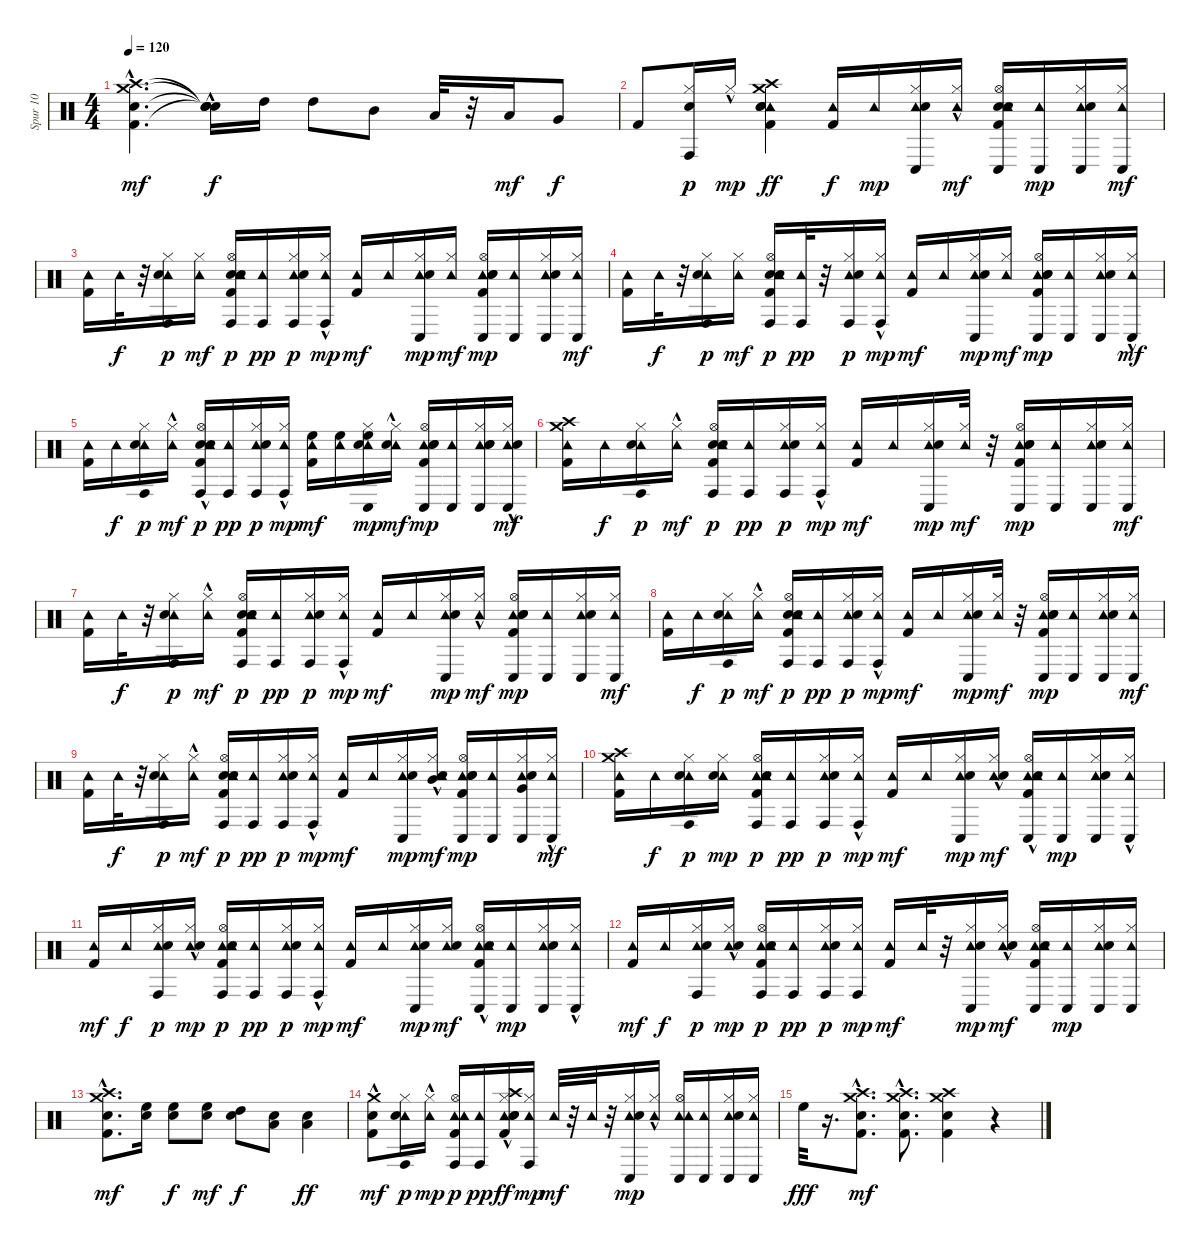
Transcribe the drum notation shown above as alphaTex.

\track ("Spur 10" "Spur 10") {instrument percussion}
\staff {score}
\articulation defaults
\ts (4 4)
\tempo 120
\clef neutral
\ks c
("Crash medium (hit)"{hac} "Crash high (hit)"{hac} "Electric Snare (hit)"{hac} "Kick (hit) 2"{hac}).4{d dy mf} ("Snare (hit)"{hac t} "Snare (hit)"{hac t} "Snare (hit)"{t} "Snare (hit)"{t}).16{dy f} "High Tom (hit)".16 "High Tom (hit)".8 "Mid Tom (hit)".8 "Low Tom (hit)".32 r.32 "Low Tom (hit)".16{dy mf} "Very Low Tom (hit)".8{dy f} |
"Kick (hit) 2".8 ("Hi-Hat (closed)" "Snare (hit)" "Conga high (hit)").16{dy p} "Hi-Hat (closed)"{hac}.16{dy mp} ("Crash high (hit)" "Tambourine (hit)" "Hand Clap (hit)" "Kick (hit) 2" "Snare (hit) 2" "Crash medium (hit)").4{dy ff} ("Tambourine (hit)" "Kick (hit) 2").16{dy f} "Tambourine (hit)".16{dy mp} ("Hi-Hat (closed)" "Tambourine (hit)" "Snare (hit)" "Conga low (hit)").16 ("Hi-Hat (closed)"{hac} "Tambourine (hit)").16{dy mf} ("Snare (hit) 2" "Hi-Hat (open)" "Tambourine (hit)" "Hand Clap (hit)" "Kick (hit) 2" "Conga low (hit)").16 ("Tambourine (hit)" "Conga low (hit)").16{dy mp} ("Hi-Hat (closed)" "Tambourine (hit)" "Snare (hit)" "Conga low (hit)").16 ("Conga low (hit)" "Hi-Hat (closed)" "Tambourine (hit)").16{dy mf} |
("Tambourine (hit)" "Kick (hit) 2").16 "Tambourine (hit)".32{dy f} r.32 ("Hi-Hat (closed)" "Tambourine (hit)" "Snare (hit)" "Conga high (hit)").16{dy p} ("Hi-Hat (closed)" "Tambourine (hit)").16{dy mf} ("Hand Clap (hit)" "Hi-Hat (open)" "Tambourine (hit)" "Snare (hit) 2" "Kick (hit) 2" "Conga high (hit)").16{dy p} ("Tambourine (hit)" "Conga high (hit)").16{dy pp} ("Hi-Hat (closed)" "Tambourine (hit)" "Snare (hit)" "Conga high (hit)").16{dy p} ("Hi-Hat (closed)"{hac} "Tambourine (hit)" "Conga high (hit)").16{dy mp} ("Tambourine (hit)" "Kick (hit) 2").16{dy mf} "Tambourine (hit)".16 ("Hi-Hat (closed)" "Tambourine (hit)" "Snare (hit)" "Conga low (hit)").16{dy mp} ("Hi-Hat (closed)" "Tambourine (hit)").16{dy mf} ("Hi-Hat (open)" "Tambourine (hit)" "Hand Clap (hit)" "Kick (hit) 2" "Conga low (hit)" "Snare (hit) 2").16{dy mp} ("Tambourine (hit)" "Conga low (hit)").16 ("Hi-Hat (closed)" "Tambourine (hit)" "Snare (hit)" "Conga low (hit)").16 ("Conga low (hit)" "Hi-Hat (closed)" "Tambourine (hit)").16{dy mf} |
("Tambourine (hit)" "Kick (hit) 2").16 "Tambourine (hit)".32{dy f} r.32 ("Hi-Hat (closed)" "Tambourine (hit)" "Snare (hit)" "Conga high (hit)").16{dy p} ("Hi-Hat (closed)" "Tambourine (hit)").16{dy mf} ("Hand Clap (hit)" "Hi-Hat (open)" "Tambourine (hit)" "Snare (hit) 2" "Kick (hit) 2" "Conga high (hit)").16{dy p} ("Tambourine (hit)" "Conga high (hit)").32{dy pp} r.32 ("Hi-Hat (closed)" "Tambourine (hit)" "Snare (hit)" "Conga high (hit)").16{dy p} ("Hi-Hat (closed)"{hac} "Tambourine (hit)" "Conga high (hit)").16{dy mp} ("Tambourine (hit)" "Kick (hit) 2").16{dy mf} "Tambourine (hit)".16 ("Hi-Hat (closed)" "Tambourine (hit)" "Snare (hit)" "Conga low (hit)").16{dy mp} ("Hi-Hat (closed)" "Tambourine (hit)").16{dy mf} ("Hi-Hat (open)" "Tambourine (hit)" "Hand Clap (hit)" "Kick (hit) 2" "Conga low (hit)" "Snare (hit) 2").16{dy mp} ("Tambourine (hit)" "Conga low (hit)").16 ("Hi-Hat (closed)" "Tambourine (hit)" "Snare (hit)" "Conga low (hit)").16 ("Conga low (hit)" "Hi-Hat (closed)"{hac} "Tambourine (hit)").16{dy mf} |
("Tambourine (hit)" "Kick (hit) 2").16 "Tambourine (hit)".16{dy f} ("Hi-Hat (closed)" "Tambourine (hit)" "Snare (hit)" "Conga high (hit)").16{dy p} ("Hi-Hat (closed)"{hac} "Tambourine (hit)").16{dy mf} ("Hand Clap (hit)" "Hi-Hat (open)" "Tambourine (hit)" "Snare (hit) 2"{hac} "Kick (hit) 2" "Conga high (hit)").16{dy p} ("Tambourine (hit)" "Conga high (hit)").16{dy pp} ("Hi-Hat (closed)" "Tambourine (hit)" "Snare (hit)" "Conga high (hit)").16{dy p} ("Hi-Hat (closed)"{hac} "Tambourine (hit)" "Conga high (hit)").16{dy mp} ("Tambourine (hit)" "Kick (hit) 2" "High Floor Tom (hit)").16{dy mf} ("Tambourine (hit)" "High Floor Tom (hit)").16 ("Hi-Hat (closed)" "Tambourine (hit)" "Snare (hit)" "Conga low (hit)" "High Floor Tom (hit)").16{dy mp} ("Hi-Hat (closed)"{hac} "Tambourine (hit)" "Snare (hit) 2").16{dy mf} ("Hi-Hat (open)" "Tambourine (hit)" "Hand Clap (hit)" "Snare (hit) 2" "Kick (hit) 2" "Conga low (hit)").16{dy mp} ("Tambourine (hit)" "Conga low (hit)").16 ("Hi-Hat (closed)" "Tambourine (hit)" "Snare (hit)" "Conga low (hit)" "Snare (hit) 2").16 ("Hi-Hat (closed)"{hac} "Tambourine (hit)" "Conga low (hit)" "Snare (hit) 2").16{dy mf} |
("Crash medium (hit)" "Crash high (hit)" "Tambourine (hit)" "Kick (hit) 2").16 "Tambourine (hit)".16{dy f} ("Hi-Hat (closed)" "Tambourine (hit)" "Snare (hit)" "Conga high (hit)").16{dy p} ("Hi-Hat (closed)"{hac} "Tambourine (hit)").16{dy mf} ("Hand Clap (hit)" "Hi-Hat (open)" "Tambourine (hit)" "Snare (hit) 2" "Kick (hit) 2" "Conga high (hit)").16{dy p} ("Tambourine (hit)" "Conga high (hit)").16{dy pp} ("Hi-Hat (closed)" "Tambourine (hit)" "Snare (hit)" "Conga high (hit)").16{dy p} ("Hi-Hat (closed)"{hac} "Tambourine (hit)" "Conga high (hit)").16{dy mp} ("Tambourine (hit)" "Kick (hit) 2").16{dy mf} "Tambourine (hit)".16 ("Hi-Hat (closed)" "Tambourine (hit)" "Snare (hit)" "Conga low (hit)").16{dy mp} ("Hi-Hat (closed)" "Tambourine (hit)").32{dy mf} r.32 ("Hi-Hat (open)" "Tambourine (hit)" "Hand Clap (hit)" "Kick (hit) 2" "Conga low (hit)" "Snare (hit) 2").16{dy mp} ("Tambourine (hit)" "Conga low (hit)").16 ("Hi-Hat (closed)" "Tambourine (hit)" "Snare (hit)" "Conga low (hit)").16 ("Conga low (hit)" "Hi-Hat (closed)" "Tambourine (hit)").16{dy mf} |
("Tambourine (hit)" "Kick (hit) 2").16 "Tambourine (hit)".32{dy f} r.32 ("Hi-Hat (closed)" "Tambourine (hit)" "Snare (hit)" "Conga high (hit)").16{dy p} ("Hi-Hat (closed)"{hac} "Tambourine (hit)").16{dy mf} ("Hand Clap (hit)" "Hi-Hat (open)" "Tambourine (hit)" "Snare (hit) 2" "Kick (hit) 2" "Conga high (hit)").16{dy p} ("Tambourine (hit)" "Conga high (hit)").16{dy pp} ("Hi-Hat (closed)" "Tambourine (hit)" "Snare (hit)" "Conga high (hit)").16{dy p} ("Hi-Hat (closed)"{hac} "Tambourine (hit)" "Conga high (hit)").16{dy mp} ("Tambourine (hit)" "Kick (hit) 2").16{dy mf} "Tambourine (hit)".16 ("Hi-Hat (closed)" "Tambourine (hit)" "Snare (hit)" "Conga low (hit)").16{dy mp} ("Hi-Hat (closed)"{hac} "Tambourine (hit)").16{dy mf} ("Hi-Hat (open)" "Tambourine (hit)" "Hand Clap (hit)" "Kick (hit) 2" "Conga low (hit)" "Snare (hit) 2").16{dy mp} ("Tambourine (hit)" "Conga low (hit)").16 ("Hi-Hat (closed)" "Tambourine (hit)" "Snare (hit)" "Conga low (hit)").16 ("Conga low (hit)" "Hi-Hat (closed)" "Tambourine (hit)").16{dy mf} |
("Tambourine (hit)" "Kick (hit) 2").16 "Tambourine (hit)".16{dy f} ("Hi-Hat (closed)" "Tambourine (hit)" "Snare (hit)" "Conga high (hit)").16{dy p} ("Hi-Hat (closed)"{hac} "Tambourine (hit)").16{dy mf} ("Hand Clap (hit)" "Hi-Hat (open)" "Tambourine (hit)" "Snare (hit) 2" "Kick (hit) 2" "Conga high (hit)").16{dy p} ("Tambourine (hit)" "Conga high (hit)").16{dy pp} ("Hi-Hat (closed)" "Tambourine (hit)" "Snare (hit)" "Conga high (hit)").16{dy p} ("Hi-Hat (closed)"{hac} "Tambourine (hit)" "Conga high (hit)").16{dy mp} ("Tambourine (hit)" "Kick (hit) 2").16{dy mf} "Tambourine (hit)".16 ("Hi-Hat (closed)" "Tambourine (hit)" "Snare (hit)" "Conga low (hit)").16{dy mp} ("Hi-Hat (closed)" "Tambourine (hit)").32{dy mf} r.32 ("Hi-Hat (open)" "Tambourine (hit)" "Hand Clap (hit)" "Kick (hit) 2" "Conga low (hit)" "Snare (hit) 2").16{dy mp} ("Tambourine (hit)" "Conga low (hit)").16 ("Hi-Hat (closed)" "Tambourine (hit)" "Snare (hit)" "Conga low (hit)").16 ("Conga low (hit)" "Hi-Hat (closed)" "Tambourine (hit)").16{dy mf} |
("Tambourine (hit)" "Kick (hit) 2").16 "Tambourine (hit)".32{dy f} r.32 ("Hi-Hat (closed)" "Tambourine (hit)" "Snare (hit)" "Conga high (hit)").16{dy p} ("Hi-Hat (closed)"{hac} "Tambourine (hit)").16{dy mf} ("Hand Clap (hit)" "Hi-Hat (open)" "Tambourine (hit)" "Snare (hit) 2" "Kick (hit) 2" "Conga high (hit)").16{dy p} ("Tambourine (hit)" "Conga high (hit)").16{dy pp} ("Hi-Hat (closed)" "Tambourine (hit)" "Snare (hit)" "Conga high (hit)").16{dy p} ("Hi-Hat (closed)"{hac} "Tambourine (hit)" "Conga high (hit)").16{dy mp} ("Tambourine (hit)" "Kick (hit) 2").16{dy mf} "Tambourine (hit)".16 ("Hi-Hat (closed)" "Tambourine (hit)" "Snare (hit)" "Conga low (hit)").16{dy mp} ("Hi-Hat (closed)"{hac} "Tambourine (hit)" "Mid Tom (hit)" "Snare (hit) 2").16{dy mf} ("Hi-Hat (open)" "Tambourine (hit)" "Hand Clap (hit)" "Kick (hit) 2" "Conga low (hit)" "Snare (hit) 2").16{dy mp} ("Tambourine (hit)" "Conga low (hit)").16 ("Hi-Hat (closed)" "Tambourine (hit)" "Snare (hit)" "Conga low (hit)" "Very Low Tom (hit)").16 ("Conga low (hit)" "Hi-Hat (closed)"{hac} "Tambourine (hit)").16{dy mf} |
("Crash high (hit)" "Crash medium (hit)" "Tambourine (hit)" "Kick (hit) 2").16 "Tambourine (hit)".16{dy f} ("Tambourine (hit)" "Hi-Hat (closed)" "Snare (hit)" "Conga high (hit)").16{dy p} ("Tambourine (hit)" "Hi-Hat (closed)" "Snare (hit) 2").16{dy mp} ("Tambourine (hit)" "Hi-Hat (open)" "Tambourine (hit)" "Kick (hit) 2" "Snare (hit) 2" "Conga high (hit)").16{dy p} ("Tambourine (hit)" "Conga high (hit)").16{dy pp} ("Tambourine (hit)" "Hi-Hat (closed)" "Snare (hit)" "Conga high (hit)").16{dy p} ("Tambourine (hit)" "Hi-Hat (closed)"{hac} "Conga high (hit)").16{dy mp} ("Tambourine (hit)" "Kick (hit) 2").16{dy mf} "Tambourine (hit)".16 ("Tambourine (hit)" "Hi-Hat (closed)" "Snare (hit)" "Conga low (hit)").16{dy mp} ("Tambourine (hit)" "Hi-Hat (closed)"{hac} "Snare (hit) 2").16{dy mf} ("Tambourine (hit)" "Hi-Hat (open)" "Kick (hit) 2" "Tambourine (hit)" "Conga low (hit)" "Snare (hit) 2"{hac}).16 ("Tambourine (hit)" "Conga low (hit)").16{dy mp} ("Tambourine (hit)" "Hi-Hat (closed)" "Snare (hit)" "Conga low (hit)").16 ("Conga low (hit)" "Tambourine (hit)" "Hi-Hat (closed)"{hac}).16 |
("Tambourine (hit)" "Kick (hit) 2").16{dy mf} "Tambourine (hit)".16{dy f} ("Tambourine (hit)" "Hi-Hat (closed)" "Snare (hit)" "Conga high (hit)").16{dy p} ("Tambourine (hit)" "Hi-Hat (closed)"{hac} "Snare (hit) 2").16{dy mp} ("Tambourine (hit)" "Hi-Hat (open)" "Tambourine (hit)" "Kick (hit) 2" "Snare (hit) 2" "Conga high (hit)").16{dy p} ("Tambourine (hit)" "Conga high (hit)").16{dy pp} ("Tambourine (hit)" "Hi-Hat (closed)" "Snare (hit)" "Conga high (hit)").16{dy p} ("Tambourine (hit)" "Hi-Hat (closed)"{hac} "Conga high (hit)").16{dy mp} ("Tambourine (hit)" "Kick (hit) 2").16{dy mf} "Tambourine (hit)".16 ("Tambourine (hit)" "Hi-Hat (closed)" "Snare (hit)" "Conga low (hit)").16{dy mp} ("Tambourine (hit)" "Hi-Hat (closed)" "Snare (hit) 2").16{dy mf} ("Tambourine (hit)" "Hi-Hat (open)" "Kick (hit) 2" "Tambourine (hit)" "Conga low (hit)" "Snare (hit) 2"{hac}).16 ("Tambourine (hit)" "Conga low (hit)").16{dy mp} ("Tambourine (hit)" "Hi-Hat (closed)" "Snare (hit)" "Conga low (hit)").16 ("Conga low (hit)" "Tambourine (hit)" "Hi-Hat (closed)"{hac}).16 |
("Tambourine (hit)" "Kick (hit) 2").16{dy mf} "Tambourine (hit)".16{dy f} ("Tambourine (hit)" "Hi-Hat (closed)" "Snare (hit)" "Conga high (hit)").16{dy p} ("Tambourine (hit)" "Hi-Hat (closed)"{hac} "Snare (hit) 2").16{dy mp} ("Tambourine (hit)" "Hi-Hat (open)" "Tambourine (hit)" "Kick (hit) 2" "Snare (hit) 2" "Conga high (hit)").16{dy p} ("Tambourine (hit)" "Conga high (hit)").16{dy pp} ("Tambourine (hit)" "Hi-Hat (closed)" "Snare (hit)" "Conga high (hit)").16{dy p} ("Tambourine (hit)" "Hi-Hat (closed)" "Conga high (hit)").16{dy mp} ("Tambourine (hit)" "Kick (hit) 2").16{dy mf} "Tambourine (hit)".32 r.32 ("Tambourine (hit)" "Hi-Hat (closed)" "Snare (hit)" "Conga low (hit)").16{dy mp} ("Tambourine (hit)" "Hi-Hat (closed)"{hac} "Snare (hit) 2").16{dy mf} ("Tambourine (hit)" "Hi-Hat (open)" "Kick (hit) 2" "Tambourine (hit)" "Conga low (hit)" "Snare (hit) 2").16 ("Tambourine (hit)" "Conga low (hit)").16{dy mp} ("Tambourine (hit)" "Hi-Hat (closed)" "Snare (hit)" "Conga low (hit)").16 ("Conga low (hit)" "Tambourine (hit)" "Hi-Hat (closed)").16 |
("Snare (hit) 2"{hac} "Kick (hit) 2" "Crash medium (hit)" "Crash high (hit)").8{d dy mf} ("High Floor Tom (hit)" "Snare (hit) 2").16 ("High Floor Tom (hit)" "Snare (hit) 2").8{dy f} ("High Floor Tom (hit)" "Snare (hit) 2").8{dy mf} ("High Tom (hit)" "Snare (hit) 2").8{dy f} ("Low Tom (hit)" "Snare (hit) 2").8 ("Low Floor Tom (hit)" "Snare (hit) 2").4{dy ff} |
("Crash medium (hit)" "Kick (hit) 2" "Snare (hit) 2"{hac}).8{dy mf} ("Tambourine (hit)" "Hi-Hat (closed)" "Snare (hit)" "Conga high (hit)").16{dy p} ("Tambourine (hit)" "Hi-Hat (closed)"{hac}).16{dy mp} ("Tambourine (hit)" "Hi-Hat (open)" "Tambourine (hit)" "Kick (hit) 2" "Conga high (hit)").16{dy p} ("Tambourine (hit)" "Conga high (hit)").16{dy pp} ("Tambourine (hit)" "Hi-Hat (closed)" "Snare (hit)" "Crash high (hit)"{hac} "Kick (hit) 2"{hac} "Snare (hit) 2").16{dy ff} ("Tambourine (hit)" "Hi-Hat (closed)" "Conga high (hit)").16{dy mp} "Tambourine (hit)".32{dy mf} r.32 "Tambourine (hit)".32 r.32 ("Tambourine (hit)" "Hi-Hat (closed)" "Snare (hit)" "Conga low (hit)").16{dy mp} ("Tambourine (hit)" "Hi-Hat (closed)"{hac}).16 ("Tambourine (hit)" "Hi-Hat (open)" "Tambourine (hit)" "Conga low (hit)").16 ("Tambourine (hit)" "Conga low (hit)").16 ("Tambourine (hit)" "Hi-Hat (closed)" "Snare (hit)" "Conga low (hit)").16 ("Conga low (hit)" "Tambourine (hit)" "Hi-Hat (closed)").16 |
"High Floor Tom (hit)".32{dy fff} r.16{d} ("Crash medium (hit)"{hac} "Crash high (hit)"{hac} "Electric Snare (hit)"{hac} "Kick (hit) 2"{hac}).8{d dy mf} ("Crash high (hit)"{hac} "Crash medium (hit)"{hac} "Electric Snare (hit)"{hac} "Kick (hit) 2"{hac}).8{d} ("Crash medium (hit)" "Electric Snare (hit)" "Crash high (hit)" "Kick (hit) 2").4 r.4
